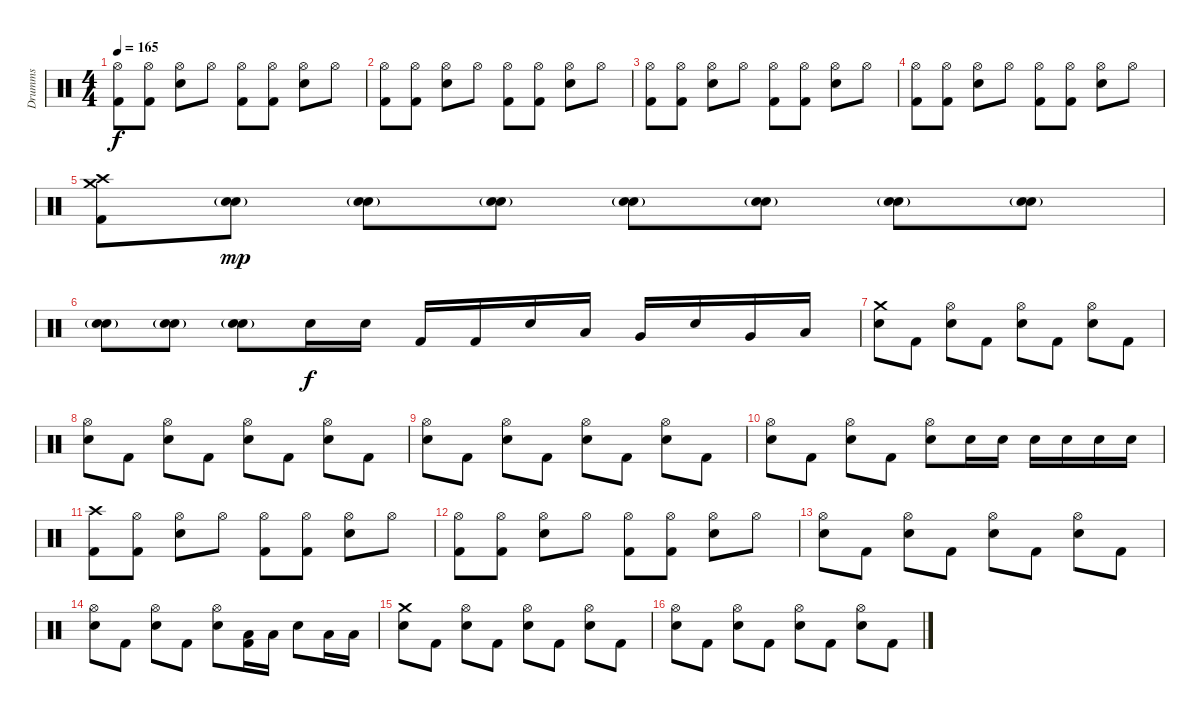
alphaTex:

\track ("Drumms" "Drumms") {instrument percussion}
\staff {score}
\articulation defaults
\ts (4 4)
\tempo 165
\clef neutral
\ks c
("Hi-Hat (open)" "Kick (hit) 2").8{dy f} ("Hi-Hat (open)" "Kick (hit) 2").8 ("Hi-Hat (open)" "Electric Snare (hit)").8 "Hi-Hat (open)".8 ("Hi-Hat (open)" "Kick (hit) 2").8 ("Hi-Hat (open)" "Kick (hit) 2").8 ("Hi-Hat (open)" "Electric Snare (hit)").8 "Hi-Hat (open)".8 |
("Hi-Hat (open)" "Kick (hit) 2").8 ("Hi-Hat (open)" "Kick (hit) 2").8 ("Hi-Hat (open)" "Electric Snare (hit)").8 "Hi-Hat (open)".8 ("Hi-Hat (open)" "Kick (hit) 2").8 ("Hi-Hat (open)" "Kick (hit) 2").8 ("Hi-Hat (open)" "Electric Snare (hit)").8 "Hi-Hat (open)".8 |
("Hi-Hat (open)" "Kick (hit) 2").8 ("Hi-Hat (open)" "Kick (hit) 2").8 ("Hi-Hat (open)" "Electric Snare (hit)").8 "Hi-Hat (open)".8 ("Hi-Hat (open)" "Kick (hit) 2").8 ("Hi-Hat (open)" "Kick (hit) 2").8 ("Hi-Hat (open)" "Electric Snare (hit)").8 "Hi-Hat (open)".8 |
("Hi-Hat (open)" "Kick (hit) 2").8 ("Hi-Hat (open)" "Kick (hit) 2").8 ("Hi-Hat (open)" "Electric Snare (hit)").8 "Hi-Hat (open)".8 ("Hi-Hat (open)" "Kick (hit) 2").8 ("Hi-Hat (open)" "Kick (hit) 2").8 ("Hi-Hat (open)" "Electric Snare (hit)").8 "Hi-Hat (open)".8 |
("Crash high (hit)" "Crash medium (hit)" "Kick (hit) 2").8 ("Electric Snare (hit)"{g} "Electric Snare (hit)").8{dy mp} ("Electric Snare (hit)"{g} "Electric Snare (hit)").8 ("Electric Snare (hit)"{g} "Electric Snare (hit)").8 ("Electric Snare (hit)"{g} "Electric Snare (hit)").8 ("Electric Snare (hit)"{g} "Electric Snare (hit)").8 ("Electric Snare (hit)"{g} "Electric Snare (hit)").8 ("Electric Snare (hit)"{g} "Electric Snare (hit)").8 |
("Electric Snare (hit)"{g} "Electric Snare (hit)").8 ("Electric Snare (hit)"{g} "Electric Snare (hit)").8 ("Electric Snare (hit)"{g} "Electric Snare (hit)").8 "Electric Snare (hit)".16{dy f} "Electric Snare (hit)".16 "Kick (hit) 2".16 "Kick (hit) 2".16 "Electric Snare (hit)".16 "Low Tom (hit)".16 "Very Low Tom (hit)".16 "Electric Snare (hit)".16 "Very Low Tom (hit)".16 "Low Tom (hit)".16 |
("Crash medium (hit)" "Electric Snare (hit)").8 "Kick (hit) 2".8 ("Hi-Hat (open)" "Electric Snare (hit)").8 "Kick (hit) 2".8 ("Hi-Hat (open)" "Electric Snare (hit)").8 "Kick (hit) 2".8 ("Hi-Hat (open)" "Electric Snare (hit)").8 "Kick (hit) 2".8 |
("Hi-Hat (open)" "Electric Snare (hit)").8 "Kick (hit) 2".8 ("Hi-Hat (open)" "Electric Snare (hit)").8 "Kick (hit) 2".8 ("Hi-Hat (open)" "Electric Snare (hit)").8 "Kick (hit) 2".8 ("Hi-Hat (open)" "Electric Snare (hit)").8 "Kick (hit) 2".8 |
("Hi-Hat (open)" "Electric Snare (hit)").8 "Kick (hit) 2".8 ("Hi-Hat (open)" "Electric Snare (hit)").8 "Kick (hit) 2".8 ("Hi-Hat (open)" "Electric Snare (hit)").8 "Kick (hit) 2".8 ("Hi-Hat (open)" "Electric Snare (hit)").8 "Kick (hit) 2".8 |
("Hi-Hat (open)" "Electric Snare (hit)").8 "Kick (hit) 2".8 ("Hi-Hat (open)" "Electric Snare (hit)").8 "Kick (hit) 2".8 ("Hi-Hat (open)" "Electric Snare (hit)").8 "Electric Snare (hit)".16 "Electric Snare (hit)".16 "Electric Snare (hit)".16 "Electric Snare (hit)".16 "Electric Snare (hit)".16 "Electric Snare (hit)".16 |
("Crash high (hit)" "Kick (hit) 2").8 ("Hi-Hat (open)" "Kick (hit) 2").8 ("Hi-Hat (open)" "Electric Snare (hit)").8 "Hi-Hat (open)".8 ("Hi-Hat (open)" "Kick (hit) 2").8 ("Hi-Hat (open)" "Kick (hit) 2").8 ("Hi-Hat (open)" "Electric Snare (hit)").8 "Hi-Hat (open)".8 |
("Hi-Hat (open)" "Kick (hit) 2").8 ("Hi-Hat (open)" "Kick (hit) 2").8 ("Hi-Hat (open)" "Electric Snare (hit)").8 "Hi-Hat (open)".8 ("Hi-Hat (open)" "Kick (hit) 2").8 ("Hi-Hat (open)" "Kick (hit) 2").8 ("Hi-Hat (open)" "Electric Snare (hit)").8 "Hi-Hat (open)".8 |
("Hi-Hat (open)" "Electric Snare (hit)").8 "Kick (hit) 2".8 ("Hi-Hat (open)" "Electric Snare (hit)").8 "Kick (hit) 2".8 ("Hi-Hat (open)" "Electric Snare (hit)").8 "Kick (hit) 2".8 ("Hi-Hat (open)" "Electric Snare (hit)").8 "Kick (hit) 2".8 |
("Hi-Hat (open)" "Electric Snare (hit)").8 "Kick (hit) 2".8 ("Hi-Hat (open)" "Electric Snare (hit)").8 "Kick (hit) 2".8 ("Hi-Hat (open)" "Electric Snare (hit)").8 ("Low Tom (hit)" "Kick (hit) 2").16 "Low Tom (hit)".16 "Electric Snare (hit)".8 "Low Tom (hit)".16 "Low Tom (hit)".16 |
("Crash medium (hit)" "Electric Snare (hit)").8 "Kick (hit) 2".8 ("Hi-Hat (open)" "Electric Snare (hit)").8 "Kick (hit) 2".8 ("Hi-Hat (open)" "Electric Snare (hit)").8 "Kick (hit) 2".8 ("Hi-Hat (open)" "Electric Snare (hit)").8 "Kick (hit) 2".8 |
("Hi-Hat (open)" "Electric Snare (hit)").8 "Kick (hit) 2".8 ("Hi-Hat (open)" "Electric Snare (hit)").8 "Kick (hit) 2".8 ("Hi-Hat (open)" "Electric Snare (hit)").8 "Kick (hit) 2".8 ("Hi-Hat (open)" "Electric Snare (hit)").8 "Kick (hit) 2".8
